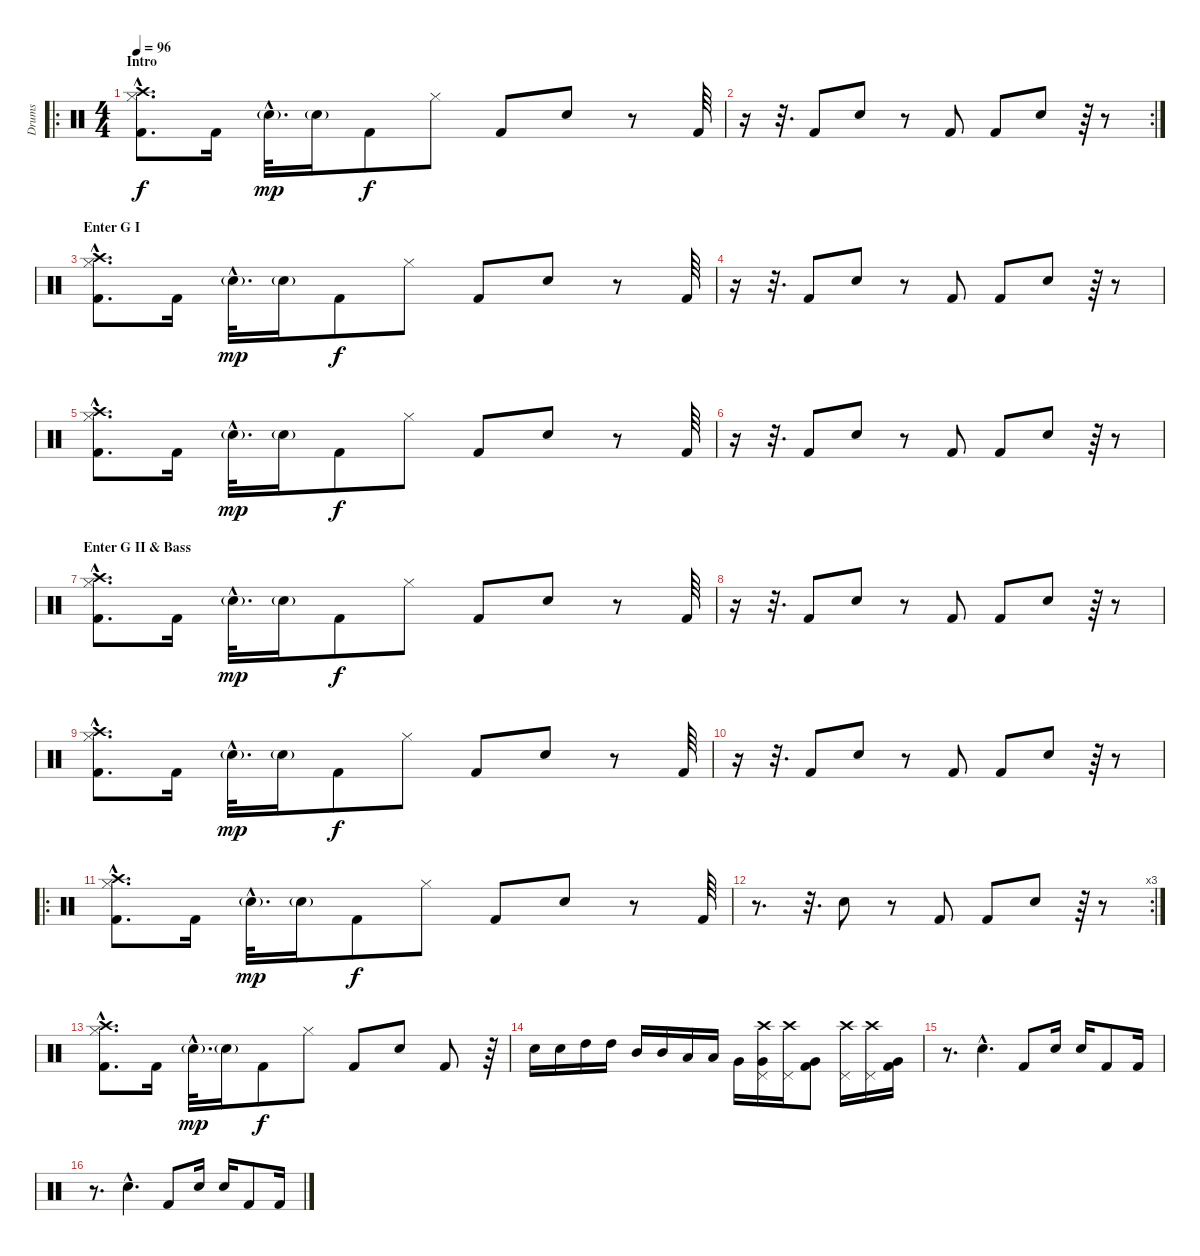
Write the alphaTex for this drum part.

\track ("Drums" "Drums") {instrument percussion}
\staff {score}
\articulation defaults
\ro
\ts (4 4)
\section ("" "Intro")
\tempo 96
\clef neutral
\ks c
("Kick (hit) 2"{hac} "Crash high (hit)"{hac} "Hi-Hat (closed)"{hac}).8{d dy f} "Kick (hit) 2".16 "Snare (hit) 2"{g hac}.32{d dy mp} "Snare (hit) 2"{g}.16 "Kick (hit) 2".8{dy f} "Hi-Hat (closed)".8 "Kick (hit) 2".8 "Snare (hit) 2".8 r.8 "Kick (hit) 2".64 |
\rc 2
r.16 r.32{d} "Kick (hit) 2".8 "Snare (hit) 2".8 r.8 "Kick (hit) 2".8 "Kick (hit) 2".8 "Snare (hit) 2".8 r.64 r.8 |
\section ("" "Enter G I")
("Kick (hit) 2"{hac} "Crash high (hit)"{hac} "Hi-Hat (closed)"{hac}).8{d} "Kick (hit) 2".16 "Snare (hit) 2"{g hac}.32{d dy mp} "Snare (hit) 2"{g}.16 "Kick (hit) 2".8{dy f} "Hi-Hat (closed)".8 "Kick (hit) 2".8 "Snare (hit) 2".8 r.8 "Kick (hit) 2".64 |
r.16 r.32{d} "Kick (hit) 2".8 "Snare (hit) 2".8 r.8 "Kick (hit) 2".8 "Kick (hit) 2".8 "Snare (hit) 2".8 r.64 r.8 |
("Kick (hit) 2"{hac} "Crash high (hit)"{hac} "Hi-Hat (closed)"{hac}).8{d} "Kick (hit) 2".16 "Snare (hit) 2"{g hac}.32{d dy mp} "Snare (hit) 2"{g}.16 "Kick (hit) 2".8{dy f} "Hi-Hat (closed)".8 "Kick (hit) 2".8 "Snare (hit) 2".8 r.8 "Kick (hit) 2".64 |
r.16 r.32{d} "Kick (hit) 2".8 "Snare (hit) 2".8 r.8 "Kick (hit) 2".8 "Kick (hit) 2".8 "Snare (hit) 2".8 r.64 r.8 |
\section ("" "Enter G II & Bass")
("Kick (hit) 2"{hac} "Crash high (hit)"{hac} "Hi-Hat (closed)"{hac}).8{d} "Kick (hit) 2".16 "Snare (hit) 2"{g hac}.32{d dy mp} "Snare (hit) 2"{g}.16 "Kick (hit) 2".8{dy f} "Hi-Hat (closed)".8 "Kick (hit) 2".8 "Snare (hit) 2".8 r.8 "Kick (hit) 2".64 |
r.16 r.32{d} "Kick (hit) 2".8 "Snare (hit) 2".8 r.8 "Kick (hit) 2".8 "Kick (hit) 2".8 "Snare (hit) 2".8 r.64 r.8 |
("Kick (hit) 2"{hac} "Crash high (hit)"{hac} "Hi-Hat (closed)"{hac}).8{d} "Kick (hit) 2".16 "Snare (hit) 2"{g hac}.32{d dy mp} "Snare (hit) 2"{g}.16 "Kick (hit) 2".8{dy f} "Hi-Hat (closed)".8 "Kick (hit) 2".8 "Snare (hit) 2".8 r.8 "Kick (hit) 2".64 |
r.16 r.32{d} "Kick (hit) 2".8 "Snare (hit) 2".8 r.8 "Kick (hit) 2".8 "Kick (hit) 2".8 "Snare (hit) 2".8 r.64 r.8 |
\ro
("Kick (hit) 2"{hac} "Crash high (hit)"{hac} "Hi-Hat (closed)"{hac}).8{d} "Kick (hit) 2".16 "Snare (hit) 2"{g hac}.32{d dy mp} "Snare (hit) 2"{g}.16 "Kick (hit) 2".8{dy f} "Hi-Hat (closed)".8 "Kick (hit) 2".8 "Snare (hit) 2".8 r.8 "Kick (hit) 2".64 |
\rc 3
r.8{d} r.32{d} "Snare (hit) 2".8 r.8 "Kick (hit) 2".8 "Kick (hit) 2".8 "Snare (hit) 2".8 r.64 r.8 |
("Kick (hit) 2"{hac} "Crash high (hit)"{hac} "Hi-Hat (closed)"{hac}).8{d} "Kick (hit) 2".16 "Snare (hit) 2"{g hac}.32{d dy mp} "Snare (hit) 2"{g}.16 "Kick (hit) 2".8{dy f} "Hi-Hat (closed)".8 "Kick (hit) 2".8 "Snare (hit) 2".8 "Kick (hit) 2".8 r.64 |
"Electric Snare (hit)".16 "Electric Snare (hit)".16 "High Tom (hit)".16 "High Tom (hit)".16 "Mid Tom (hit)".16 "Mid Tom (hit)".16 "Low Tom (hit)".16 "Low Tom (hit)".16 "Very Low Tom (hit)".16 ("Very Low Tom (hit)" "Crash high (hit)" "Pedal Hi-Hat (hit)").16 ("Crash high (hit)" "Pedal Hi-Hat (hit)").16 ("Kick (hit) 2" "Very Low Tom (hit)").8 ("Crash high (hit)" "Pedal Hi-Hat (hit)").16 ("Crash high (hit)" "Pedal Hi-Hat (hit)").16 ("Kick (hit) 2" "Very Low Tom (hit)").16 |
r.8{d} "Snare (hit) 2"{hac}.4{d} "Kick (hit) 2".8 "Snare (hit) 2".16 "Snare (hit) 2".16 "Kick (hit) 2".8 "Kick (hit) 2".16 |
r.8{d} "Snare (hit) 2"{hac}.4{d} "Kick (hit) 2".8 "Snare (hit) 2".16 "Snare (hit) 2".16 "Kick (hit) 2".8 "Kick (hit) 2".16
